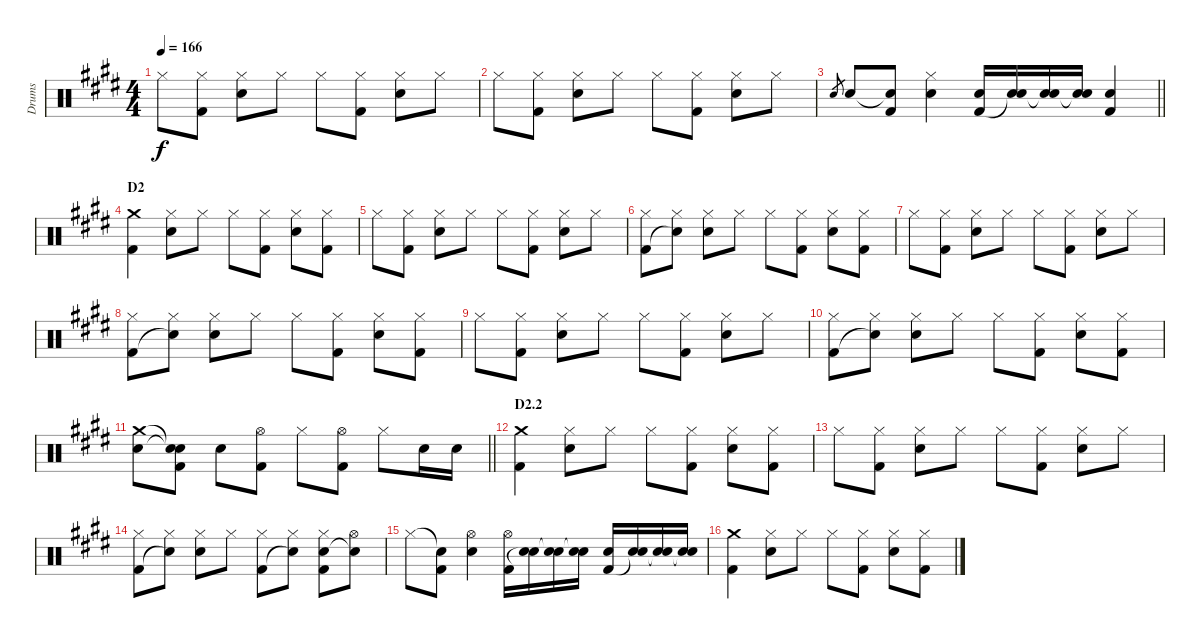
\track ("Drums" "Drums") {instrument percussion}
\staff {score}
\articulation defaults
\ts (4 4)
\tempo 166
\clef neutral
\ks e "Hi-Hat (closed)".8{dy f}
("Hi-Hat (closed)" "Kick (hit) 2").8 ("Hi-Hat (closed)" "Snare (hit) 2").8 "Hi-Hat (closed)".8 "Hi-Hat (closed)".8 ("Hi-Hat (closed)" "Kick (hit) 2").8 ("Hi-Hat (closed)" "Snare (hit) 2").8 "Hi-Hat (closed)".8 |
"Hi-Hat (closed)".8 ("Hi-Hat (closed)" "Kick (hit) 2").8 ("Hi-Hat (closed)" "Snare (hit) 2").8 "Hi-Hat (closed)".8 "Hi-Hat (closed)".8 ("Hi-Hat (closed)" "Kick (hit) 2").8 ("Hi-Hat (closed)" "Snare (hit) 2").8 "Hi-Hat (closed)".8 |
\barLineRight lightlight "Snare (hit) 2".8{gr} "Snare (hit) 2".8
("Snare (hit)"{t} "Kick (hit) 2").8 ("Hi-Hat (closed)" "Snare (hit) 2").4 ("Snare (hit) 2" "Kick (hit) 2").16 ("Snare (hit) 2" "Snare (hit)"{t}).16 ("Snare (hit) 2" "Snare (hit)"{t}).16 ("Snare (hit) 2" "Snare (hit)"{t}).16 ("Snare (hit) 2" "Kick (hit) 2").4 |
\section ("" "D2")
("Crash medium (hit)" "Kick (hit) 2").4 ("Hi-Hat (closed)" "Snare (hit) 2").8 "Hi-Hat (closed)".8 "Hi-Hat (closed)".8 ("Hi-Hat (closed)" "Kick (hit) 2").8 ("Hi-Hat (closed)" "Snare (hit) 2").8 ("Hi-Hat (closed)" "Kick (hit) 2").8 |
"Hi-Hat (closed)".8 ("Hi-Hat (closed)" "Kick (hit) 2").8 ("Hi-Hat (closed)" "Snare (hit) 2").8 "Hi-Hat (closed)".8 "Hi-Hat (closed)".8 ("Hi-Hat (closed)" "Kick (hit) 2").8 ("Hi-Hat (closed)" "Snare (hit) 2").8 "Hi-Hat (closed)".8 |
("Hi-Hat (closed)" "Kick (hit) 2").8 ("Hi-Hat (closed)" "Snare (hit)"{t}).8 ("Hi-Hat (closed)" "Snare (hit) 2").8 "Hi-Hat (closed)".8 "Hi-Hat (closed)".8 ("Hi-Hat (closed)" "Kick (hit) 2").8 ("Hi-Hat (closed)" "Snare (hit) 2").8 ("Hi-Hat (closed)" "Kick (hit) 2").8 |
"Hi-Hat (closed)".8 ("Hi-Hat (closed)" "Kick (hit) 2").8 ("Hi-Hat (closed)" "Snare (hit) 2").8 "Hi-Hat (closed)".8 "Hi-Hat (closed)".8 ("Hi-Hat (closed)" "Kick (hit) 2").8 ("Hi-Hat (closed)" "Snare (hit) 2").8 "Hi-Hat (closed)".8 |
("Hi-Hat (closed)" "Kick (hit) 2").8 ("Hi-Hat (closed)" "Snare (hit)"{t}).8 ("Hi-Hat (closed)" "Snare (hit) 2").8 "Hi-Hat (closed)".8 "Hi-Hat (closed)".8 ("Hi-Hat (closed)" "Kick (hit) 2").8 ("Hi-Hat (closed)" "Snare (hit) 2").8 ("Hi-Hat (closed)" "Kick (hit) 2").8 |
"Hi-Hat (closed)".8 ("Hi-Hat (closed)" "Kick (hit) 2").8 ("Hi-Hat (closed)" "Snare (hit) 2").8 "Hi-Hat (closed)".8 "Hi-Hat (closed)".8 ("Hi-Hat (closed)" "Kick (hit) 2").8 ("Hi-Hat (closed)" "Snare (hit) 2").8 "Hi-Hat (closed)".8 |
("Hi-Hat (closed)" "Kick (hit) 2").8 ("Hi-Hat (closed)" "Snare (hit)"{t}).8 ("Hi-Hat (closed)" "Snare (hit) 2").8 "Hi-Hat (closed)".8 "Hi-Hat (closed)".8 ("Hi-Hat (closed)" "Kick (hit) 2").8 ("Hi-Hat (closed)" "Snare (hit) 2").8 ("Hi-Hat (closed)" "Kick (hit) 2").8 |
\barLineRight lightlight
("Crash medium (hit)" "Snare (hit) 2").8 ("Snare (hit)"{t} "Snare (hit)"{t} "Kick (hit) 2").8 "Snare (hit) 2".8 ("Hi-Hat (open)" "Kick (hit) 2").8 "Hi-Hat (closed)".8 ("Hi-Hat (open)" "Kick (hit) 2").8 "Hi-Hat (closed)".8 "Snare (hit) 2".16 "Snare (hit) 2".16 |
\section ("" "D2.2")
("Crash medium (hit)" "Kick (hit) 2").4 ("Hi-Hat (closed)" "Snare (hit) 2").8 "Hi-Hat (closed)".8 "Hi-Hat (closed)".8 ("Hi-Hat (closed)" "Kick (hit) 2").8 ("Hi-Hat (closed)" "Snare (hit) 2").8 ("Hi-Hat (closed)" "Kick (hit) 2").8 |
"Hi-Hat (closed)".8 ("Hi-Hat (closed)" "Kick (hit) 2").8 ("Hi-Hat (closed)" "Snare (hit) 2").8 "Hi-Hat (closed)".8 "Hi-Hat (closed)".8 ("Hi-Hat (closed)" "Kick (hit) 2").8 ("Hi-Hat (closed)" "Snare (hit) 2").8 "Hi-Hat (closed)".8 |
("Hi-Hat (closed)" "Kick (hit) 2").8 ("Hi-Hat (closed)" "Snare (hit)"{t}).8 ("Hi-Hat (closed)" "Snare (hit) 2").8 "Hi-Hat (closed)".8 ("Hi-Hat (closed)" "Kick (hit) 2").8 ("Hi-Hat (closed)" "Snare (hit)"{t}).8 ("Hi-Hat (closed)" "Snare (hit) 2" "Kick (hit) 2").8 ("Hi-Hat (open)" "Snare (hit)"{t}).8 |
"Hi-Hat (closed)".8 ("Snare (hit)"{t} "Kick (hit) 2").8 ("Hi-Hat (open)" "Snare (hit) 2").4 ("Hi-Hat (open)" "Kick (hit) 2").16 ("Snare (hit) 2" "Snare (hit)"{t}).16 ("Snare (hit) 2" "Snare (hit)"{t}).16 ("Snare (hit) 2" "Snare (hit)"{t}).16 ("Snare (hit) 2" "Kick (hit) 2").16 ("Snare (hit) 2" "Snare (hit)"{t}).16 ("Snare (hit) 2" "Snare (hit)"{t}).16 ("Snare (hit) 2" "Snare (hit)"{t}).16 |
("Crash medium (hit)" "Kick (hit) 2").4 ("Hi-Hat (closed)" "Snare (hit) 2").8 "Hi-Hat (closed)".8 "Hi-Hat (closed)".8 ("Hi-Hat (closed)" "Kick (hit) 2").8 ("Hi-Hat (closed)" "Snare (hit) 2").8 ("Hi-Hat (closed)" "Kick (hit) 2").8
